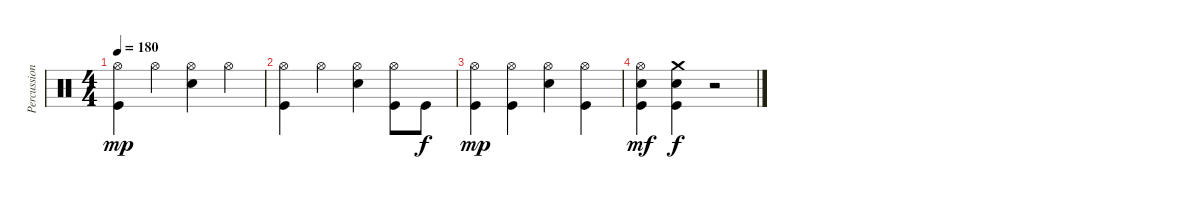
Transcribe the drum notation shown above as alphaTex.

\track ("Percussion" "Percussion") {instrument percussion}
\staff {score}
\articulation defaults
\ts (4 4)
\tempo 180
\clef neutral
\ks c
("Hi-Hat (open)" "Kick (hit)").4{dy mp} "Hi-Hat (open)".4 ("Hi-Hat (open)" "Snare (hit) 2").4 "Hi-Hat (open)".4 |
("Hi-Hat (open)" "Kick (hit)").4 "Hi-Hat (open)".4 ("Hi-Hat (open)" "Snare (hit) 2").4 ("Hi-Hat (open)" "Kick (hit)").8 "Kick (hit)".8{dy f} |
("Hi-Hat (open)" "Kick (hit)").4{dy mp} ("Hi-Hat (open)" "Kick (hit)").4 ("Hi-Hat (open)" "Snare (hit) 2").4 ("Hi-Hat (open)" "Kick (hit)").4 |
("Hi-Hat (open)" "Snare (hit) 2" "Kick (hit)").4{dy mf} ("Crash medium (hit)" "Snare (hit) 2" "Kick (hit)").4{dy f} r.2
